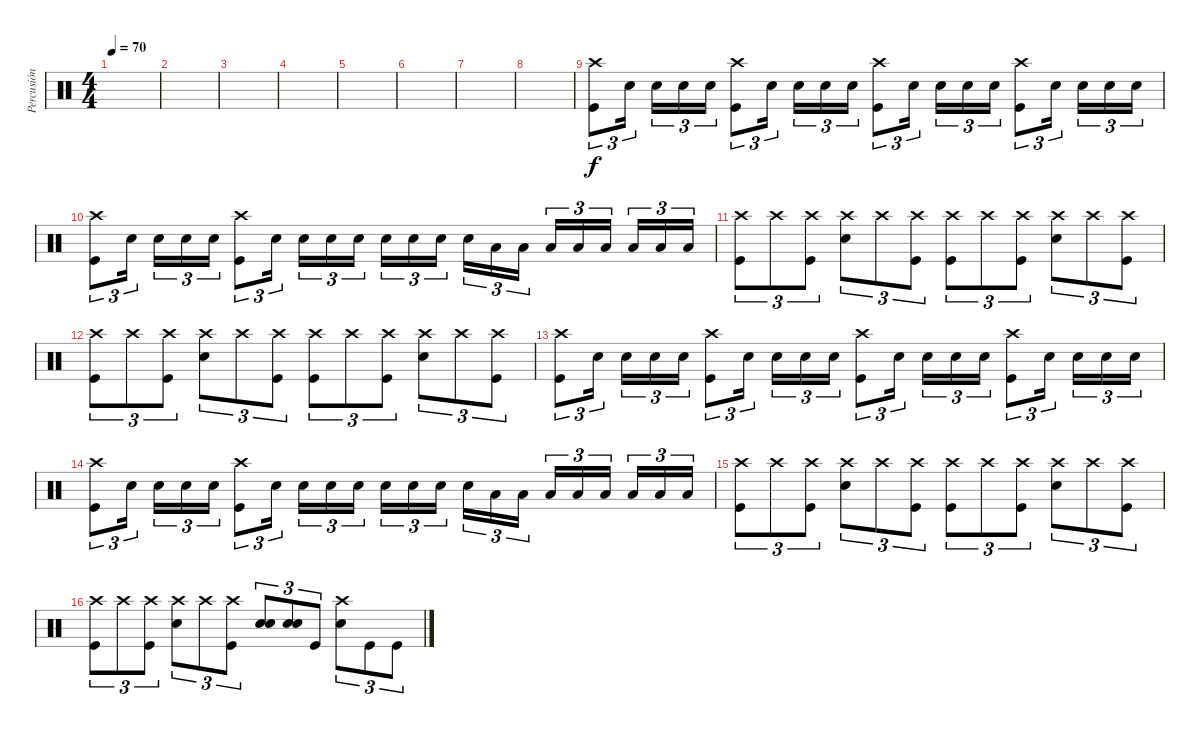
\track ("Percusión" "Percusión") {instrument percussion}
\staff {score}
\articulation defaults
\ts (4 4)
\tempo 70
\clef neutral
\ks c
|
|
|
|
|
|
|
|
("Kick (hit)" "Crash high (hit)").8{tu (3 2)} "Snare (hit) 2".16{tu (3 2) beam splitsecondary} "Snare (hit) 2".16{tu (3 2)} "Snare (hit) 2".16{tu (3 2)} "Snare (hit) 2".16{tu (3 2)} ("Kick (hit)" "Crash high (hit)").8{tu (3 2)} "Snare (hit) 2".16{tu (3 2) beam splitsecondary} "Snare (hit) 2".16{tu (3 2)} "Snare (hit) 2".16{tu (3 2)} "Snare (hit) 2".16{tu (3 2)} ("Kick (hit)" "Crash high (hit)").8{tu (3 2)} "Snare (hit) 2".16{tu (3 2) beam splitsecondary} "Snare (hit) 2".16{tu (3 2)} "Snare (hit) 2".16{tu (3 2)} "Snare (hit) 2".16{tu (3 2)} ("Kick (hit)" "Crash high (hit)").8{tu (3 2)} "Snare (hit) 2".16{tu (3 2) beam splitsecondary} "Snare (hit) 2".16{tu (3 2)} "Snare (hit) 2".16{tu (3 2)} "Snare (hit) 2".16{tu (3 2)} |
("Kick (hit)" "Crash high (hit)").8{tu (3 2)} "Snare (hit) 2".16{tu (3 2) beam splitsecondary} "Snare (hit) 2".16{tu (3 2)} "Snare (hit) 2".16{tu (3 2)} "Snare (hit) 2".16{tu (3 2)} ("Kick (hit)" "Crash high (hit)").8{tu (3 2)} "Snare (hit) 2".16{tu (3 2) beam splitsecondary} "Snare (hit) 2".16{tu (3 2)} "Snare (hit) 2".16{tu (3 2)} "Snare (hit) 2".16{tu (3 2)} "Snare (hit) 2".16{tu (3 2)} "Snare (hit) 2".16{tu (3 2)} "Snare (hit) 2".16{tu (3 2) beam splitsecondary} "Snare (hit) 2".16{tu (3 2)} "Low Tom (hit)".16{tu (3 2)} "Low Tom (hit)".16{tu (3 2)} "Low Tom (hit)".16{tu (3 2)} "Low Tom (hit)".16{tu (3 2)} "Low Floor Tom (hit)".16{tu (3 2) beam splitsecondary} "Low Floor Tom (hit)".16{tu (3 2)} "Low Floor Tom (hit)".16{tu (3 2)} "Low Floor Tom (hit)".16{tu (3 2)} |
("Crash high (hit)" "Kick (hit)").8{tu (3 2)} "Crash high (hit)".8{tu (3 2)} ("Crash high (hit)" "Kick (hit)").8{tu (3 2)} ("Crash high (hit)" "Snare (hit) 2").8{tu (3 2)} "Crash high (hit)".8{tu (3 2)} ("Crash high (hit)" "Kick (hit)").8{tu (3 2)} ("Crash high (hit)" "Kick (hit)").8{tu (3 2)} "Crash high (hit)".8{tu (3 2)} ("Crash high (hit)" "Kick (hit)").8{tu (3 2)} ("Crash high (hit)" "Snare (hit) 2").8{tu (3 2)} "Crash high (hit)".8{tu (3 2)} ("Crash high (hit)" "Kick (hit)").8{tu (3 2)} |
("Crash high (hit)" "Kick (hit)").8{tu (3 2)} "Crash high (hit)".8{tu (3 2)} ("Crash high (hit)" "Kick (hit)").8{tu (3 2)} ("Crash high (hit)" "Snare (hit) 2").8{tu (3 2)} "Crash high (hit)".8{tu (3 2)} ("Crash high (hit)" "Kick (hit)").8{tu (3 2)} ("Crash high (hit)" "Kick (hit)").8{tu (3 2)} "Crash high (hit)".8{tu (3 2)} ("Crash high (hit)" "Kick (hit)").8{tu (3 2)} ("Crash high (hit)" "Snare (hit) 2").8{tu (3 2)} "Crash high (hit)".8{tu (3 2)} ("Crash high (hit)" "Kick (hit)").8{tu (3 2)} |
("Kick (hit)" "Crash high (hit)").8{tu (3 2)} "Snare (hit) 2".16{tu (3 2) beam splitsecondary} "Snare (hit) 2".16{tu (3 2)} "Snare (hit) 2".16{tu (3 2)} "Snare (hit) 2".16{tu (3 2)} ("Kick (hit)" "Crash high (hit)").8{tu (3 2)} "Snare (hit) 2".16{tu (3 2) beam splitsecondary} "Snare (hit) 2".16{tu (3 2)} "Snare (hit) 2".16{tu (3 2)} "Snare (hit) 2".16{tu (3 2)} ("Kick (hit)" "Crash high (hit)").8{tu (3 2)} "Snare (hit) 2".16{tu (3 2) beam splitsecondary} "Snare (hit) 2".16{tu (3 2)} "Snare (hit) 2".16{tu (3 2)} "Snare (hit) 2".16{tu (3 2)} ("Kick (hit)" "Crash high (hit)").8{tu (3 2)} "Snare (hit) 2".16{tu (3 2) beam splitsecondary} "Snare (hit) 2".16{tu (3 2)} "Snare (hit) 2".16{tu (3 2)} "Snare (hit) 2".16{tu (3 2)} |
("Kick (hit)" "Crash high (hit)").8{tu (3 2)} "Snare (hit) 2".16{tu (3 2) beam splitsecondary} "Snare (hit) 2".16{tu (3 2)} "Snare (hit) 2".16{tu (3 2)} "Snare (hit) 2".16{tu (3 2)} ("Kick (hit)" "Crash high (hit)").8{tu (3 2)} "Snare (hit) 2".16{tu (3 2) beam splitsecondary} "Snare (hit) 2".16{tu (3 2)} "Snare (hit) 2".16{tu (3 2)} "Snare (hit) 2".16{tu (3 2)} "Snare (hit) 2".16{tu (3 2)} "Snare (hit) 2".16{tu (3 2)} "Snare (hit) 2".16{tu (3 2) beam splitsecondary} "Snare (hit) 2".16{tu (3 2)} "Low Tom (hit)".16{tu (3 2)} "Low Tom (hit)".16{tu (3 2)} "Low Tom (hit)".16{tu (3 2)} "Low Tom (hit)".16{tu (3 2)} "Low Floor Tom (hit)".16{tu (3 2) beam splitsecondary} "Low Floor Tom (hit)".16{tu (3 2)} "Low Floor Tom (hit)".16{tu (3 2)} "Low Floor Tom (hit)".16{tu (3 2)} |
("Crash high (hit)" "Kick (hit)").8{tu (3 2)} "Crash high (hit)".8{tu (3 2)} ("Crash high (hit)" "Kick (hit)").8{tu (3 2)} ("Crash high (hit)" "Snare (hit) 2").8{tu (3 2)} "Crash high (hit)".8{tu (3 2)} ("Crash high (hit)" "Kick (hit)").8{tu (3 2)} ("Crash high (hit)" "Kick (hit)").8{tu (3 2)} "Crash high (hit)".8{tu (3 2)} ("Crash high (hit)" "Kick (hit)").8{tu (3 2)} ("Crash high (hit)" "Snare (hit) 2").8{tu (3 2)} "Crash high (hit)".8{tu (3 2)} ("Crash high (hit)" "Kick (hit)").8{tu (3 2)} |
("Crash high (hit)" "Kick (hit)").8{tu (3 2)} "Crash high (hit)".8{tu (3 2)} ("Crash high (hit)" "Kick (hit)").8{tu (3 2)} ("Crash high (hit)" "Snare (hit) 2").8{tu (3 2)} "Crash high (hit)".8{tu (3 2)} ("Crash high (hit)" "Kick (hit)").8{tu (3 2)} ("Snare (hit) 2" "Snare (hit) 2").8{tu (3 2)} ("Snare (hit) 2" "Snare (hit) 2").8{tu (3 2)} "Kick (hit)".8{tu (3 2)} ("Snare (hit) 2" "Crash high (hit)").8{tu (3 2)} "Kick (hit)".8{tu (3 2)} "Kick (hit)".8{tu (3 2)}
